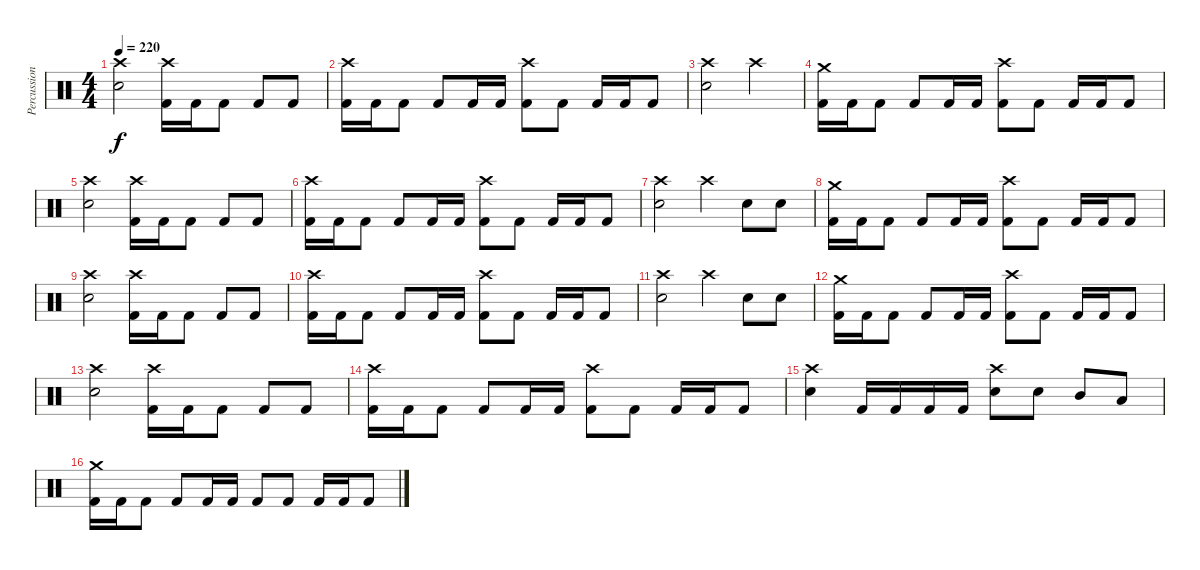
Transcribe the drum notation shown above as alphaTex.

\track ("Percussions" "Percussion") {instrument percussion}
\staff {score}
\articulation defaults
\ts (4 4)
\tempo 220
\clef neutral
\ks c
("Crash high (hit)" "Electric Snare (hit)").2{dy f} ("Crash high (hit)" "Kick (hit) 2").16 "Kick (hit) 2".16 "Kick (hit) 2".8 "Kick (hit) 2".8 "Kick (hit) 2".8 |
("Crash high (hit)" "Kick (hit) 2").16 "Kick (hit) 2".16 "Kick (hit) 2".8 "Kick (hit) 2".8 "Kick (hit) 2".16 "Kick (hit) 2".16 ("Crash high (hit)" "Kick (hit) 2").8 "Kick (hit) 2".8 "Kick (hit) 2".16 "Kick (hit) 2".16 "Kick (hit) 2".8 |
("Crash high (hit)" "Electric Snare (hit)").2 "Crash high (hit)".2 |
("Crash medium (hit)" "Kick (hit) 2").16 "Kick (hit) 2".16 "Kick (hit) 2".8 "Kick (hit) 2".8 "Kick (hit) 2".16 "Kick (hit) 2".16 ("Crash high (hit)" "Kick (hit) 2").8 "Kick (hit) 2".8 "Kick (hit) 2".16 "Kick (hit) 2".16 "Kick (hit) 2".8 |
("Crash high (hit)" "Electric Snare (hit)").2 ("Crash high (hit)" "Kick (hit) 2").16 "Kick (hit) 2".16 "Kick (hit) 2".8 "Kick (hit) 2".8 "Kick (hit) 2".8 |
("Crash high (hit)" "Kick (hit) 2").16 "Kick (hit) 2".16 "Kick (hit) 2".8 "Kick (hit) 2".8 "Kick (hit) 2".16 "Kick (hit) 2".16 ("Crash high (hit)" "Kick (hit) 2").8 "Kick (hit) 2".8 "Kick (hit) 2".16 "Kick (hit) 2".16 "Kick (hit) 2".8 |
("Crash high (hit)" "Electric Snare (hit)").2 "Crash high (hit)".4 "Electric Snare (hit)".8 "Electric Snare (hit)".8 |
("Crash medium (hit)" "Kick (hit) 2").16 "Kick (hit) 2".16 "Kick (hit) 2".8 "Kick (hit) 2".8 "Kick (hit) 2".16 "Kick (hit) 2".16 ("Crash high (hit)" "Kick (hit) 2").8 "Kick (hit) 2".8 "Kick (hit) 2".16 "Kick (hit) 2".16 "Kick (hit) 2".8 |
("Crash high (hit)" "Electric Snare (hit)").2 ("Crash high (hit)" "Kick (hit) 2").16 "Kick (hit) 2".16 "Kick (hit) 2".8 "Kick (hit) 2".8 "Kick (hit) 2".8 |
("Crash high (hit)" "Kick (hit) 2").16 "Kick (hit) 2".16 "Kick (hit) 2".8 "Kick (hit) 2".8 "Kick (hit) 2".16 "Kick (hit) 2".16 ("Crash high (hit)" "Kick (hit) 2").8 "Kick (hit) 2".8 "Kick (hit) 2".16 "Kick (hit) 2".16 "Kick (hit) 2".8 |
("Crash high (hit)" "Electric Snare (hit)").2 "Crash high (hit)".4 "Electric Snare (hit)".8 "Electric Snare (hit)".8 |
("Crash medium (hit)" "Kick (hit) 2").16 "Kick (hit) 2".16 "Kick (hit) 2".8 "Kick (hit) 2".8 "Kick (hit) 2".16 "Kick (hit) 2".16 ("Crash high (hit)" "Kick (hit) 2").8 "Kick (hit) 2".8 "Kick (hit) 2".16 "Kick (hit) 2".16 "Kick (hit) 2".8 |
("Crash high (hit)" "Electric Snare (hit)").2 ("Crash high (hit)" "Kick (hit) 2").16 "Kick (hit) 2".16 "Kick (hit) 2".8 "Kick (hit) 2".8 "Kick (hit) 2".8 |
("Crash high (hit)" "Kick (hit) 2").16 "Kick (hit) 2".16 "Kick (hit) 2".8 "Kick (hit) 2".8 "Kick (hit) 2".16 "Kick (hit) 2".16 ("Crash high (hit)" "Kick (hit) 2").8 "Kick (hit) 2".8 "Kick (hit) 2".16 "Kick (hit) 2".16 "Kick (hit) 2".8 |
("Crash high (hit)" "Electric Snare (hit)").4 "Kick (hit) 2".16 "Kick (hit) 2".16 "Kick (hit) 2".16 "Kick (hit) 2".16 ("Crash high (hit)" "Electric Snare (hit)").8 "Electric Snare (hit)".8 "Mid Tom (hit)".8 "Low Tom (hit)".8 |
("Crash medium (hit)" "Kick (hit) 2").16 "Kick (hit) 2".16 "Kick (hit) 2".8 "Kick (hit) 2".8 "Kick (hit) 2".16 "Kick (hit) 2".16 "Kick (hit) 2".8 "Kick (hit) 2".8 "Kick (hit) 2".16 "Kick (hit) 2".16 "Kick (hit) 2".8
